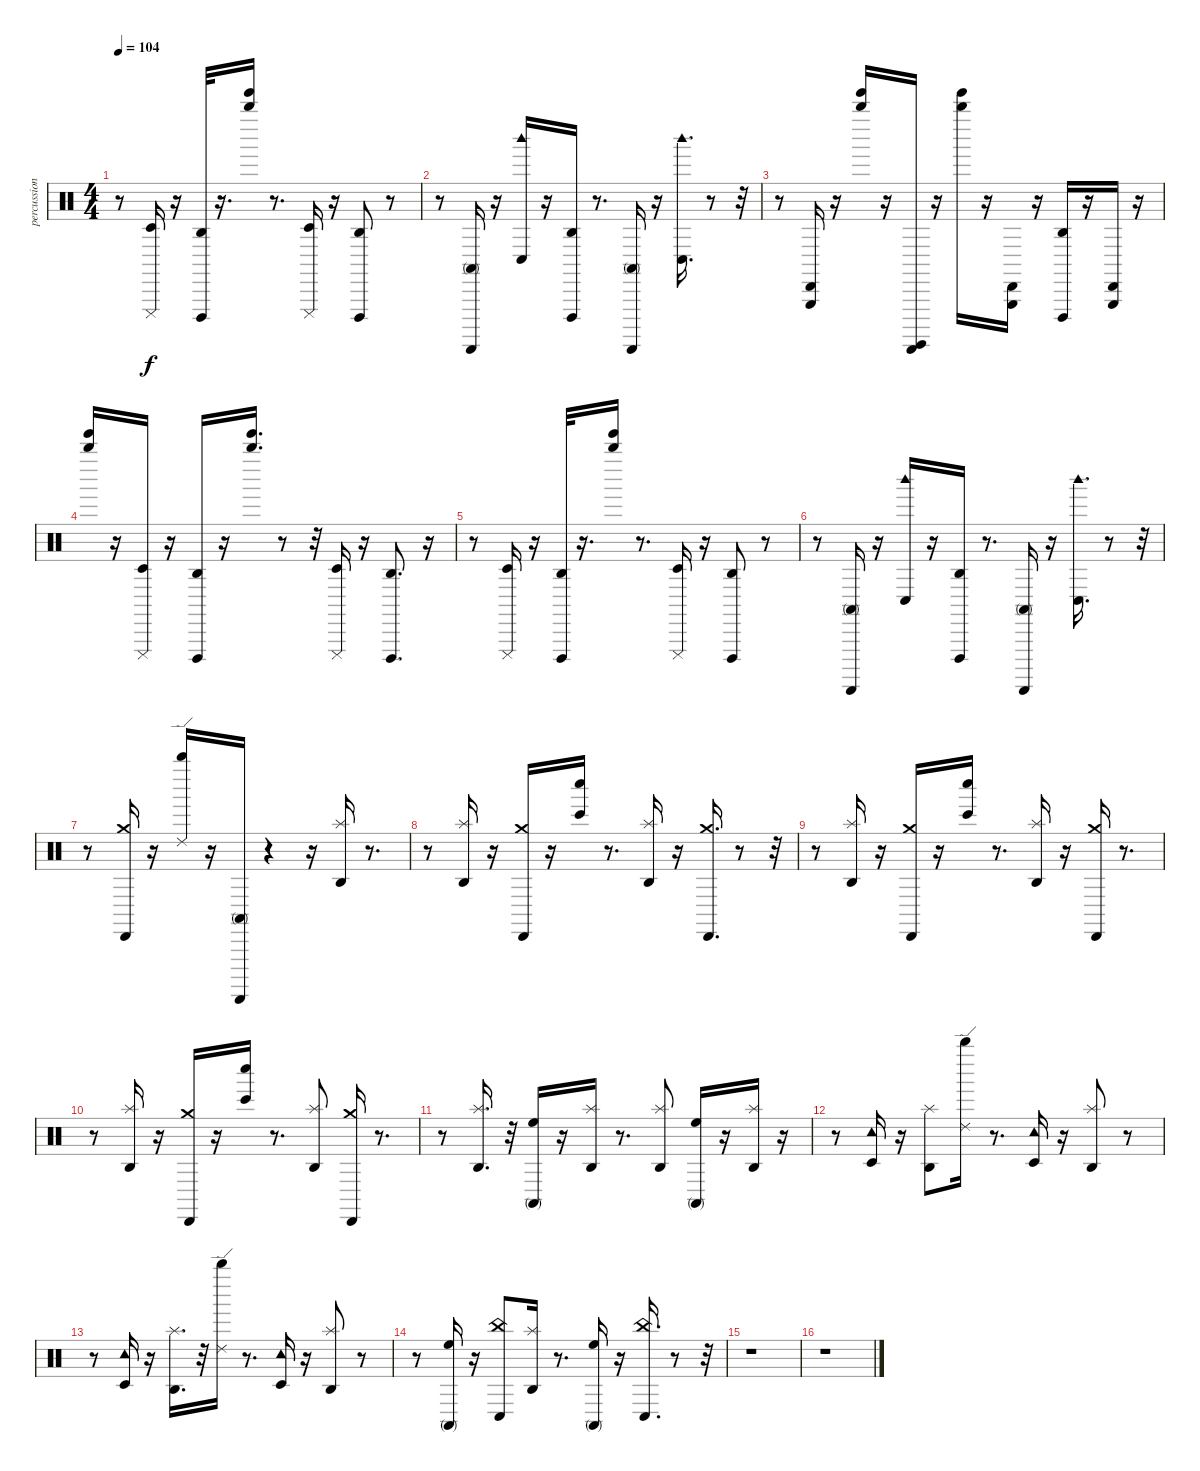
\track ("percussion" "percussion") {instrument percussion}
\staff {score}
\articulation defaults
\ts (4 4)
\tempo 104
\clef neutral
\ks c
r.8{dy f} ("Timbale low (hit)" "Cuica (mute)").16 r.16 ("Agogo high (hit)" "Cuica (open)").32 r.16{d} ("Whistle high (hit)" "Tinkle Bell (hit)").16 r.8{d} ("Timbale low (hit)" "Cuica (mute)").16 r.16 ("Agogo high (hit)" "Cuica (open)").8 r.8 |
r.8 ("Conga high (mute)" "Guiro (scrap-return)").16 r.16 ("Conga low (hit)" "Woodblock high (hit)").16 r.16 ("Agogo high (hit)" "Cuica (open)").16 r.8{d} ("Conga high (mute)" "Guiro (scrap-return)").16 r.16 ("Conga low (hit)" "Woodblock high (hit)").16{d} r.8 r.32 |
r.8 ("Cabasa (hit)" "Triangle (hit)").16 r.16 ("Whistle high (hit)" "Tinkle Bell (hit)").16 r.16 ("Guiro (scrap-return)" "Surdo (hit)").16 r.16 ("Whistle high (hit)" "Tinkle Bell (hit)").16 r.16 ("Cabasa (hit)" "Triangle (hit)").16 r.16 ("Agogo high (hit)" "Cuica (open)").16 r.16 ("Cabasa (hit)" "Triangle (hit)").16 r.16 |
("Whistle high (hit)" "Tinkle Bell (hit)").16 r.16 ("Timbale low (hit)" "Cuica (mute)").16 r.16 ("Agogo high (hit)" "Cuica (open)").16 r.16 ("Whistle high (hit)" "Tinkle Bell (hit)").16{d} r.8 r.32 ("Timbale low (hit)" "Cuica (mute)").16 r.16 ("Agogo high (hit)" "Cuica (open)").8{d} r.16 |
r.8 ("Timbale low (hit)" "Cuica (mute)").16 r.16 ("Agogo high (hit)" "Cuica (open)").32 r.16{d} ("Whistle high (hit)" "Tinkle Bell (hit)").16 r.8{d} ("Timbale low (hit)" "Cuica (mute)").16 r.16 ("Agogo high (hit)" "Cuica (open)").8 r.8 |
r.8 ("Conga high (mute)" "Guiro (scrap-return)").16 r.16 ("Conga low (hit)" "Woodblock high (hit)").16 r.16 ("Agogo high (hit)" "Cuica (open)").16 r.8{d} ("Conga high (mute)" "Guiro (scrap-return)").16 r.16 ("Conga low (hit)" "Woodblock high (hit)").16{d} r.8 r.32 |
r.8 ("Cabasa (hit)" "Crash medium (hit)").16 r.16 ("Whistle high (hit)" "Ride (edge) 2").16 r.16 ("Guiro (scrap-return)" "Conga high (mute)").16 r.4 r.16 ("Agogo high (hit)" "Splash (hit)").16 r.8{d} |
r.8 ("Agogo high (hit)" "Splash (hit)").16 r.16 ("Cabasa (hit)" "Crash medium (hit)").16 r.16 ("Whistle low (hit)" "Bongo High (hit)").16 r.8{d} ("Agogo high (hit)" "Splash (hit)").16 r.16 ("Cabasa (hit)" "Crash medium (hit)").16{d} r.8 r.32 |
r.8 ("Agogo high (hit)" "Splash (hit)").16 r.16 ("Cabasa (hit)" "Crash medium (hit)").16 r.16 ("Whistle low (hit)" "Bongo High (hit)").16 r.8{d} ("Agogo high (hit)" "Splash (hit)").16 r.16 ("Cabasa (hit)" "Crash medium (hit)").16 r.8{d} |
r.8 ("Agogo high (hit)" "Splash (hit)").16 r.16 ("Cabasa (hit)" "Crash medium (hit)").16 r.16 ("Whistle low (hit)" "Bongo High (hit)").16 r.8{d} ("Agogo high (hit)" "Splash (hit)").8 ("Cabasa (hit)" "Crash medium (hit)").16 r.8{d} |
r.8 ("Splash (hit)" "Agogo high (hit)").16{d} r.32 ("High Floor Tom (hit)" "Conga high (mute)").16 r.16 ("Splash (hit)" "Agogo high (hit)").16 r.8{d} ("Splash (hit)" "Agogo high (hit)").8 ("High Floor Tom (hit)" "Conga high (mute)").16 r.16 ("Agogo high (hit)" "Splash (hit)").16 r.16 |
r.8 ("Timbale low (hit)" "Tambourine (hit)").16 r.16 ("Agogo high (hit)" "Splash (hit)").8 ("Whistle high (hit)" "Ride (edge) 2").16 r.8{d} ("Timbale low (hit)" "Tambourine (hit)").16 r.16 ("Agogo high (hit)" "Splash (hit)").8 r.8 |
r.8 ("Timbale low (hit)" "Tambourine (hit)").16 r.16 ("Agogo high (hit)" "Splash (hit)").16{d} r.32 ("Whistle high (hit)" "Ride (edge) 2").16 r.8{d} ("Timbale low (hit)" "Tambourine (hit)").16 r.16 ("Agogo high (hit)" "Splash (hit)").8 r.8 |
r.8 ("Conga high (mute)" "High Floor Tom (hit)").16 r.16 ("Conga low (hit)" "China (hit)").8 ("Agogo high (hit)" "Splash (hit)").16 r.8{d} ("Conga high (mute)" "High Floor Tom (hit)").16 r.16 ("Conga low (hit)" "China (hit)").16{d} r.8 r.32 |
r.1 |
r.1
